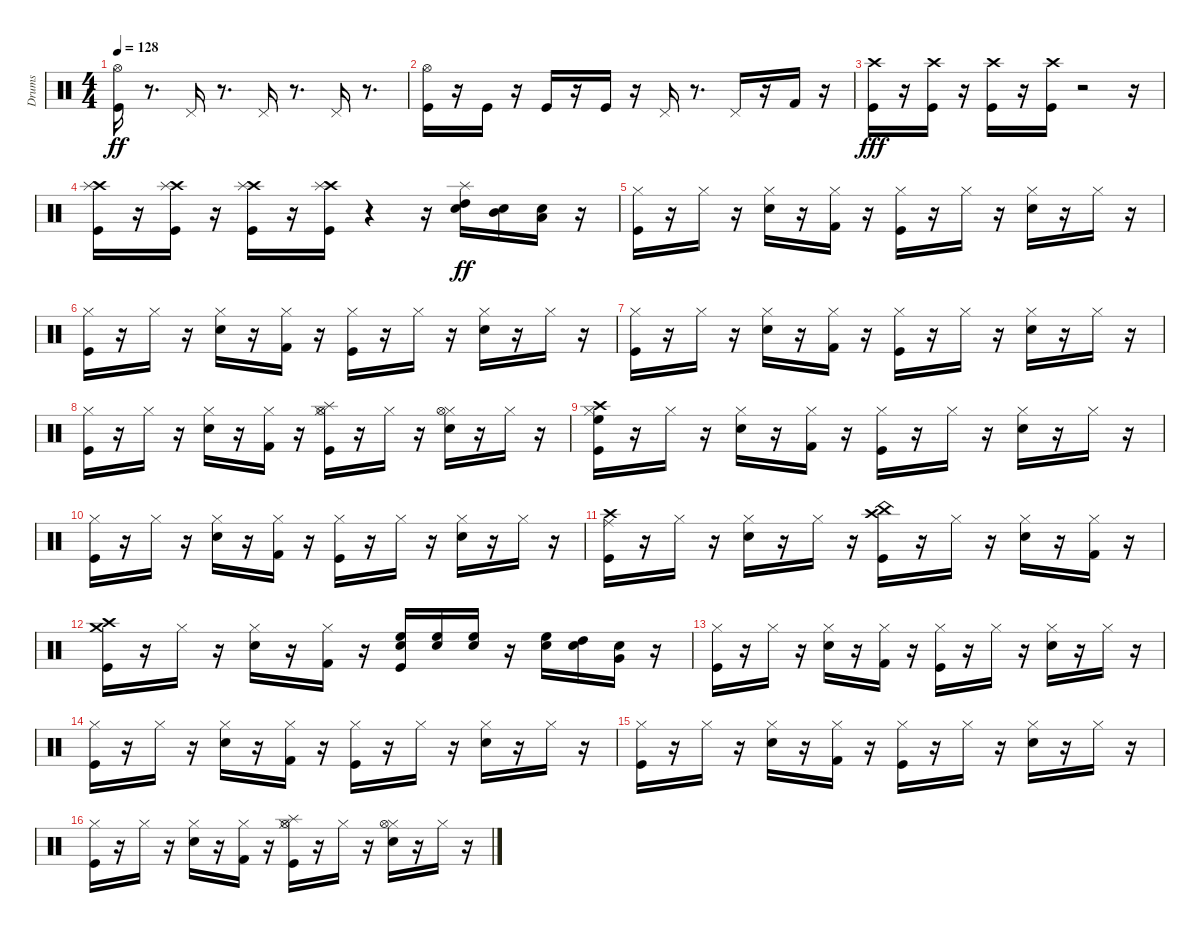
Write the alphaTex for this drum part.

\track ("Drums" "Drums") {instrument percussion}
\staff {score}
\articulation defaults
\ts (4 4)
\tempo 128
\clef neutral
\ks c
("Kick (hit)" "Hi-Hat (open)").16{dy ff} r.8{d} "Pedal Hi-Hat (hit)".16 r.8{d} "Pedal Hi-Hat (hit)".16 r.8{d} "Pedal Hi-Hat (hit)".16 r.8{d} |
("Kick (hit)" "Hi-Hat (open)").16 r.16 "Kick (hit)".16 r.16 "Kick (hit)".16 r.16 "Kick (hit)".16 r.16 "Pedal Hi-Hat (hit)".16 r.8{d} "Pedal Hi-Hat (hit)".16 r.16 "Kick (hit) 2".16 r.16 |
("Kick (hit)" "Crash high (hit)").16{dy fff} r.16 ("Kick (hit)" "Crash high (hit)").16 r.16 ("Kick (hit)" "Crash high (hit)").16 r.16 ("Kick (hit)" "Crash high (hit)").16 r.2 r.16 |
("Kick (hit)" "Crash high (hit)" "Splash (hit)").16 r.16 ("Kick (hit)" "Crash high (hit)" "Splash (hit)").16 r.16 ("Kick (hit)" "Crash high (hit)" "Splash (hit)").16 r.16 ("Kick (hit)" "Crash high (hit)" "Splash (hit)").16 r.4 r.16 ("Electric Snare (hit)" "High Tom (hit)" "Splash (hit)").16{dy ff} ("Electric Snare (hit)" "Mid Tom (hit)").16 ("Electric Snare (hit)" "Low Tom (hit)").16 r.16 |
("Kick (hit)" "Hi-Hat (closed)").16 r.16 "Hi-Hat (closed)".16 r.16 ("Snare (hit) 2" "Hi-Hat (closed)").16 r.16 ("Kick (hit) 2" "Hi-Hat (closed)").16 r.16 ("Kick (hit)" "Hi-Hat (closed)").16 r.16 "Hi-Hat (closed)".16 r.16 ("Snare (hit) 2" "Hi-Hat (closed)").16 r.16 "Hi-Hat (closed)".16 r.16 |
("Kick (hit)" "Hi-Hat (closed)").16 r.16 "Hi-Hat (closed)".16 r.16 ("Snare (hit) 2" "Hi-Hat (closed)").16 r.16 ("Kick (hit) 2" "Hi-Hat (closed)").16 r.16 ("Kick (hit)" "Hi-Hat (closed)").16 r.16 "Hi-Hat (closed)".16 r.16 ("Snare (hit) 2" "Hi-Hat (closed)").16 r.16 "Hi-Hat (closed)".16 r.16 |
("Kick (hit)" "Hi-Hat (closed)").16 r.16 "Hi-Hat (closed)".16 r.16 ("Snare (hit) 2" "Hi-Hat (closed)").16 r.16 ("Kick (hit) 2" "Hi-Hat (closed)").16 r.16 ("Kick (hit)" "Hi-Hat (closed)").16 r.16 "Hi-Hat (closed)".16 r.16 ("Snare (hit) 2" "Hi-Hat (closed)").16 r.16 "Hi-Hat (closed)".16 r.16 |
("Kick (hit)" "Hi-Hat (closed)").16 r.16 "Hi-Hat (closed)".16 r.16 ("Snare (hit) 2" "Hi-Hat (closed)").16 r.16 ("Kick (hit) 2" "Hi-Hat (closed)").16 r.16 ("Kick (hit)" "Hi-Hat (closed)" "Hi-Hat (open)" "Splash (hit)").16 r.16 "Hi-Hat (closed)".16 r.16 ("Snare (hit) 2" "Hi-Hat (closed)" "Hi-Hat (open)").16 r.16 "Hi-Hat (closed)".16 r.16 |
("Kick (hit)" "Hi-Hat (closed)" "Crash high (hit)" "High Floor Tom (hit)").16 r.16 "Hi-Hat (closed)".16 r.16 ("Snare (hit) 2" "Hi-Hat (closed)").16 r.16 ("Kick (hit) 2" "Hi-Hat (closed)").16 r.16 ("Kick (hit)" "Hi-Hat (closed)").16 r.16 "Hi-Hat (closed)".16 r.16 ("Snare (hit) 2" "Hi-Hat (closed)").16 r.16 "Hi-Hat (closed)".16 r.16 |
("Kick (hit)" "Hi-Hat (closed)").16 r.16 "Hi-Hat (closed)".16 r.16 ("Snare (hit) 2" "Hi-Hat (closed)").16 r.16 ("Kick (hit) 2" "Hi-Hat (closed)").16 r.16 ("Kick (hit)" "Hi-Hat (closed)").16 r.16 "Hi-Hat (closed)".16 r.16 ("Snare (hit) 2" "Hi-Hat (closed)").16 r.16 "Hi-Hat (closed)".16 r.16 |
("Kick (hit)" "Crash high (hit)" "Ride (middle)").16 r.16 "Hi-Hat (closed)".16 r.16 ("Snare (hit) 2" "Hi-Hat (closed)").16 r.16 "Hi-Hat (closed)".16 r.16 ("Kick (hit)" "Crash high (hit)" "China (hit)").16 r.16 "Hi-Hat (closed)".16 r.16 ("Snare (hit) 2" "Hi-Hat (closed)").16 r.16 ("Kick (hit) 2" "Hi-Hat (closed)").16 r.16 |
("Kick (hit)" "Crash high (hit)" "Crash medium (hit)").16 r.16 "Hi-Hat (closed)".16 r.16 ("Snare (hit) 2" "Hi-Hat (closed)").16 r.16 ("Kick (hit) 2" "Hi-Hat (closed)").16 r.16 ("Kick (hit)" "Electric Snare (hit)" "High Floor Tom (hit)").16 ("Electric Snare (hit)" "High Floor Tom (hit)").16 ("Electric Snare (hit)" "High Floor Tom (hit)").16 r.16 ("Snare (hit) 2" "High Floor Tom (hit)").16 ("Snare (hit) 2" "High Tom (hit)").16 ("Snare (hit) 2" "Very Low Tom (hit)").16 r.16 |
("Kick (hit)" "Hi-Hat (closed)").16 r.16 "Hi-Hat (closed)".16 r.16 ("Snare (hit) 2" "Hi-Hat (closed)").16 r.16 ("Kick (hit) 2" "Hi-Hat (closed)").16 r.16 ("Kick (hit)" "Hi-Hat (closed)").16 r.16 "Hi-Hat (closed)".16 r.16 ("Snare (hit) 2" "Hi-Hat (closed)").16 r.16 "Hi-Hat (closed)".16 r.16 |
("Kick (hit)" "Hi-Hat (closed)").16 r.16 "Hi-Hat (closed)".16 r.16 ("Snare (hit) 2" "Hi-Hat (closed)").16 r.16 ("Kick (hit) 2" "Hi-Hat (closed)").16 r.16 ("Kick (hit)" "Hi-Hat (closed)").16 r.16 "Hi-Hat (closed)".16 r.16 ("Snare (hit) 2" "Hi-Hat (closed)").16 r.16 "Hi-Hat (closed)".16 r.16 |
("Kick (hit)" "Hi-Hat (closed)").16 r.16 "Hi-Hat (closed)".16 r.16 ("Snare (hit) 2" "Hi-Hat (closed)").16 r.16 ("Kick (hit) 2" "Hi-Hat (closed)").16 r.16 ("Kick (hit)" "Hi-Hat (closed)").16 r.16 "Hi-Hat (closed)".16 r.16 ("Snare (hit) 2" "Hi-Hat (closed)").16 r.16 "Hi-Hat (closed)".16 r.16 |
("Kick (hit)" "Hi-Hat (closed)").16 r.16 "Hi-Hat (closed)".16 r.16 ("Snare (hit) 2" "Hi-Hat (closed)").16 r.16 ("Kick (hit) 2" "Hi-Hat (closed)").16 r.16 ("Kick (hit)" "Hi-Hat (closed)" "Hi-Hat (open)" "Splash (hit)").16 r.16 "Hi-Hat (closed)".16 r.16 ("Snare (hit) 2" "Hi-Hat (closed)" "Hi-Hat (open)").16 r.16 "Hi-Hat (closed)".16 r.16
